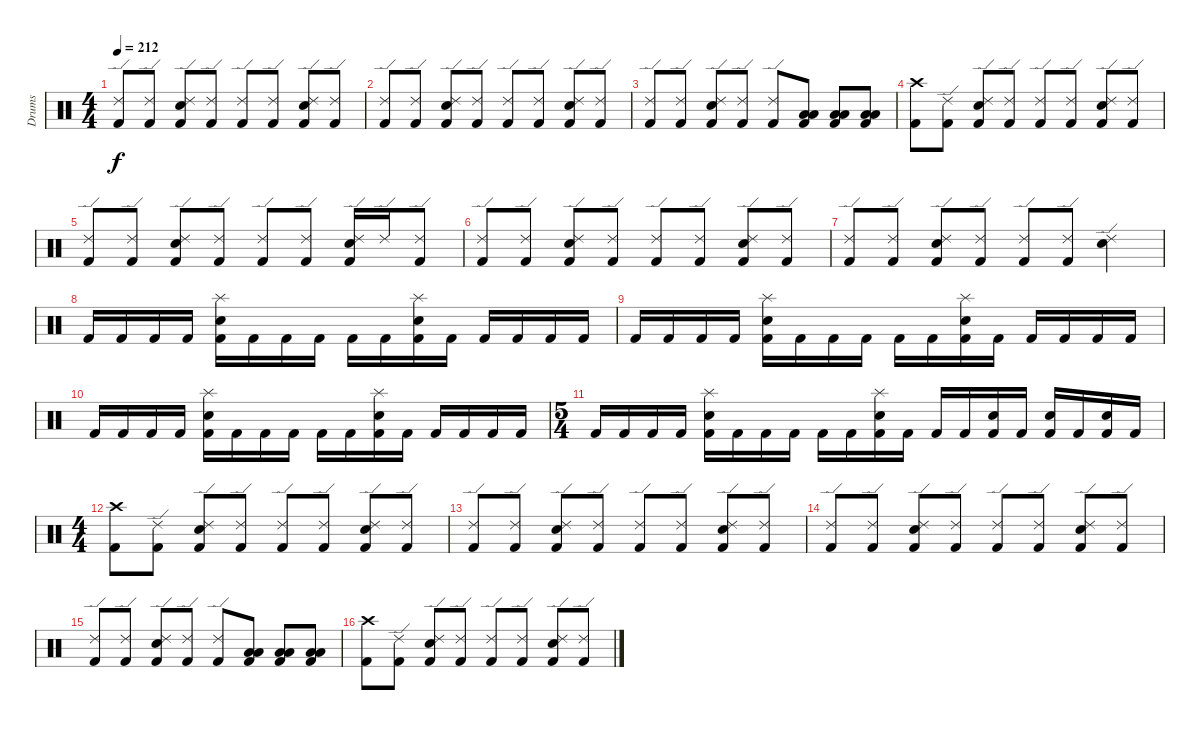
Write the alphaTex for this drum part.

\track ("Drums" "Drums") {instrument percussion}
\staff {score}
\articulation defaults
\ts (4 4)
\tempo 212
\clef neutral
\ks c
("Kick (hit) 2" "Ride (edge) 2").8{dy f} ("Kick (hit) 2" "Ride (edge) 2").8 ("Kick (hit) 2" "Snare (hit) 2" "Ride (edge) 2").8 ("Kick (hit) 2" "Ride (edge) 2").8 ("Kick (hit) 2" "Ride (edge) 2").8 ("Kick (hit) 2" "Ride (edge) 2").8 ("Kick (hit) 2" "Snare (hit) 2" "Ride (edge) 2").8 ("Kick (hit) 2" "Ride (edge) 2").8 |
("Kick (hit) 2" "Ride (edge) 2").8 ("Kick (hit) 2" "Ride (edge) 2").8 ("Kick (hit) 2" "Snare (hit) 2" "Ride (edge) 2").8 ("Kick (hit) 2" "Ride (edge) 2").8 ("Kick (hit) 2" "Ride (edge) 2").8 ("Kick (hit) 2" "Ride (edge) 2").8 ("Kick (hit) 2" "Snare (hit) 2" "Ride (edge) 2").8 ("Kick (hit) 2" "Ride (edge) 2").8 |
("Kick (hit) 2" "Ride (edge) 2").8 ("Kick (hit) 2" "Ride (edge) 2").8 ("Kick (hit) 2" "Snare (hit) 2" "Ride (edge) 2").8 ("Kick (hit) 2" "Ride (edge) 2").8 ("Kick (hit) 2" "Ride (edge) 2").8 ("Kick (hit) 2" "Low Tom (hit)" "Low Tom (hit)").8 ("Kick (hit) 2" "Low Tom (hit)" "Low Tom (hit)").8 ("Kick (hit) 2" "Low Tom (hit)" "Low Tom (hit)").8 |
("Kick (hit) 2" "Crash high (hit)").8 ("Kick (hit) 2" "Ride (edge) 2").8 ("Kick (hit) 2" "Snare (hit) 2" "Ride (edge) 2").8 ("Kick (hit) 2" "Ride (edge) 2").8 ("Kick (hit) 2" "Ride (edge) 2").8 ("Kick (hit) 2" "Ride (edge) 2").8 ("Kick (hit) 2" "Snare (hit) 2" "Ride (edge) 2").8 ("Kick (hit) 2" "Ride (edge) 2").8 |
("Kick (hit) 2" "Ride (edge) 2").8 ("Kick (hit) 2" "Ride (edge) 2").8 ("Kick (hit) 2" "Snare (hit) 2" "Ride (edge) 2").8 ("Kick (hit) 2" "Ride (edge) 2").8 ("Kick (hit) 2" "Ride (edge) 2").8 ("Kick (hit) 2" "Ride (edge) 2").8 ("Kick (hit) 2" "Snare (hit) 2" "Ride (edge) 2").16 "Ride (edge) 2".16 ("Kick (hit) 2" "Ride (edge) 2").8 |
("Kick (hit) 2" "Ride (edge) 2").8 ("Kick (hit) 2" "Ride (edge) 2").8 ("Kick (hit) 2" "Snare (hit) 2" "Ride (edge) 2").8 ("Kick (hit) 2" "Ride (edge) 2").8 ("Kick (hit) 2" "Ride (edge) 2").8 ("Kick (hit) 2" "Ride (edge) 2").8 ("Kick (hit) 2" "Snare (hit) 2" "Ride (edge) 2").8 ("Kick (hit) 2" "Ride (edge) 2").8 |
("Kick (hit) 2" "Ride (edge) 2").8 ("Kick (hit) 2" "Ride (edge) 2").8 ("Kick (hit) 2" "Snare (hit) 2" "Ride (edge) 2").8 ("Kick (hit) 2" "Ride (edge) 2").8 ("Kick (hit) 2" "Ride (edge) 2").8 ("Kick (hit) 2" "Ride (edge) 2").8 ("Snare (hit) 2" "Ride (edge) 2").4 |
"Kick (hit) 2".16 "Kick (hit) 2".16 "Kick (hit) 2".16 "Kick (hit) 2".16 ("Kick (hit) 2" "Snare (hit) 2" "Splash (hit)").16 "Kick (hit) 2".16 "Kick (hit) 2".16 "Kick (hit) 2".16 "Kick (hit) 2".16 "Kick (hit) 2".16 ("Kick (hit) 2" "Snare (hit) 2" "Splash (hit)").16 "Kick (hit) 2".16 "Kick (hit) 2".16 "Kick (hit) 2".16 "Kick (hit) 2".16 "Kick (hit) 2".16 |
"Kick (hit) 2".16 "Kick (hit) 2".16 "Kick (hit) 2".16 "Kick (hit) 2".16 ("Kick (hit) 2" "Snare (hit) 2" "Splash (hit)").16 "Kick (hit) 2".16 "Kick (hit) 2".16 "Kick (hit) 2".16 "Kick (hit) 2".16 "Kick (hit) 2".16 ("Kick (hit) 2" "Snare (hit) 2" "Splash (hit)").16 "Kick (hit) 2".16 "Kick (hit) 2".16 "Kick (hit) 2".16 "Kick (hit) 2".16 "Kick (hit) 2".16 |
"Kick (hit) 2".16 "Kick (hit) 2".16 "Kick (hit) 2".16 "Kick (hit) 2".16 ("Kick (hit) 2" "Snare (hit) 2" "Splash (hit)").16 "Kick (hit) 2".16 "Kick (hit) 2".16 "Kick (hit) 2".16 "Kick (hit) 2".16 "Kick (hit) 2".16 ("Kick (hit) 2" "Snare (hit) 2" "Splash (hit)").16 "Kick (hit) 2".16 "Kick (hit) 2".16 "Kick (hit) 2".16 "Kick (hit) 2".16 "Kick (hit) 2".16 |
\ts (5 4)
"Kick (hit) 2".16 "Kick (hit) 2".16 "Kick (hit) 2".16 "Kick (hit) 2".16 ("Kick (hit) 2" "Snare (hit) 2" "Splash (hit)").16 "Kick (hit) 2".16 "Kick (hit) 2".16 "Kick (hit) 2".16 "Kick (hit) 2".16 "Kick (hit) 2".16 ("Kick (hit) 2" "Snare (hit) 2" "Splash (hit)").16 "Kick (hit) 2".16 "Kick (hit) 2".16 "Kick (hit) 2".16 ("Kick (hit) 2" "Snare (hit) 2").16 "Kick (hit) 2".16 ("Kick (hit) 2" "Snare (hit) 2").16 "Kick (hit) 2".16 ("Kick (hit) 2" "Snare (hit) 2").16 "Kick (hit) 2".16 |
\ts (4 4)
("Kick (hit) 2" "Crash high (hit)").8 ("Kick (hit) 2" "Ride (edge) 2").8 ("Kick (hit) 2" "Snare (hit) 2" "Ride (edge) 2").8 ("Kick (hit) 2" "Ride (edge) 2").8 ("Kick (hit) 2" "Ride (edge) 2").8 ("Kick (hit) 2" "Ride (edge) 2").8 ("Kick (hit) 2" "Snare (hit) 2" "Ride (edge) 2").8 ("Kick (hit) 2" "Ride (edge) 2").8 |
("Kick (hit) 2" "Ride (edge) 2").8 ("Kick (hit) 2" "Ride (edge) 2").8 ("Kick (hit) 2" "Snare (hit) 2" "Ride (edge) 2").8 ("Kick (hit) 2" "Ride (edge) 2").8 ("Kick (hit) 2" "Ride (edge) 2").8 ("Kick (hit) 2" "Ride (edge) 2").8 ("Kick (hit) 2" "Snare (hit) 2" "Ride (edge) 2").8 ("Kick (hit) 2" "Ride (edge) 2").8 |
("Kick (hit) 2" "Ride (edge) 2").8 ("Kick (hit) 2" "Ride (edge) 2").8 ("Kick (hit) 2" "Snare (hit) 2" "Ride (edge) 2").8 ("Kick (hit) 2" "Ride (edge) 2").8 ("Kick (hit) 2" "Ride (edge) 2").8 ("Kick (hit) 2" "Ride (edge) 2").8 ("Kick (hit) 2" "Snare (hit) 2" "Ride (edge) 2").8 ("Kick (hit) 2" "Ride (edge) 2").8 |
("Kick (hit) 2" "Ride (edge) 2").8 ("Kick (hit) 2" "Ride (edge) 2").8 ("Kick (hit) 2" "Snare (hit) 2" "Ride (edge) 2").8 ("Kick (hit) 2" "Ride (edge) 2").8 ("Kick (hit) 2" "Ride (edge) 2").8 ("Kick (hit) 2" "Low Tom (hit)" "Low Tom (hit)").8 ("Kick (hit) 2" "Low Tom (hit)" "Low Tom (hit)").8 ("Kick (hit) 2" "Low Tom (hit)" "Low Tom (hit)").8 |
("Kick (hit) 2" "Crash high (hit)").8 ("Kick (hit) 2" "Ride (edge) 2").8 ("Kick (hit) 2" "Snare (hit) 2" "Ride (edge) 2").8 ("Kick (hit) 2" "Ride (edge) 2").8 ("Kick (hit) 2" "Ride (edge) 2").8 ("Kick (hit) 2" "Ride (edge) 2").8 ("Kick (hit) 2" "Snare (hit) 2" "Ride (edge) 2").8 ("Kick (hit) 2" "Ride (edge) 2").8
